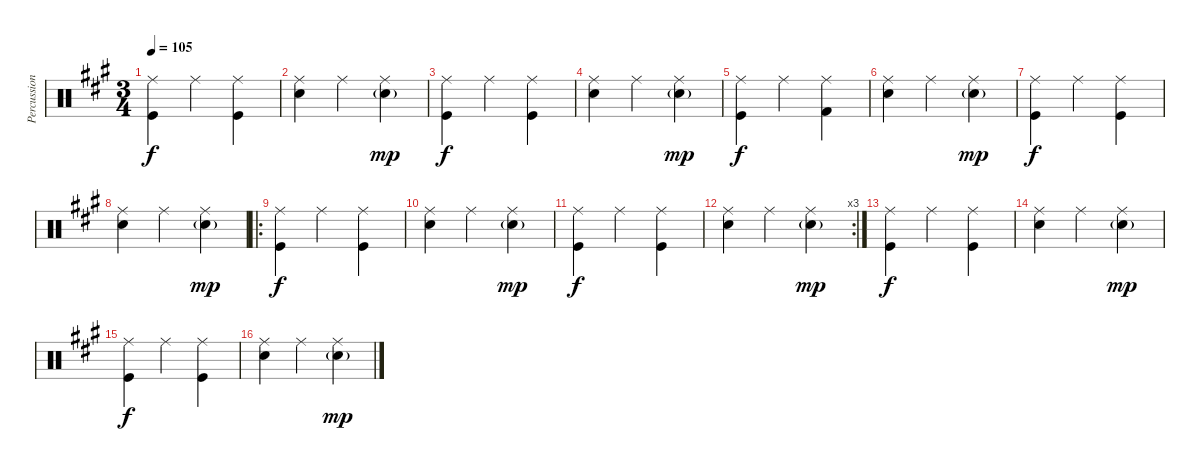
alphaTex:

\track ("Percussion" "Percussion") {instrument percussion}
\staff {score}
\articulation defaults
\ts (3 4)
\tempo 105
\clef neutral
\ks a
("Ride (middle)" "Kick (hit)").4{dy f} "Ride (middle)".4 ("Ride (middle)" "Kick (hit)").4 |
("Ride (middle)" "Snare (hit) 2").4 "Ride (middle)".4 ("Ride (middle)" "Snare (hit) 2"{g}).4{dy mp} |
("Ride (middle)" "Kick (hit)").4{dy f} "Ride (middle)".4 ("Ride (middle)" "Kick (hit)").4 |
("Ride (middle)" "Snare (hit) 2").4 "Ride (middle)".4 ("Ride (middle)" "Snare (hit) 2"{g}).4{dy mp} |
("Ride (middle)" "Kick (hit)").4{dy f} "Ride (middle)".4 ("Ride (middle)" "Kick (hit) 2").4 |
("Ride (middle)" "Snare (hit) 2").4 "Ride (middle)".4 ("Ride (middle)" "Snare (hit) 2"{g}).4{dy mp} |
("Ride (middle)" "Kick (hit)").4{dy f} "Ride (middle)".4 ("Ride (middle)" "Kick (hit)").4 |
("Ride (middle)" "Snare (hit) 2").4 "Ride (middle)".4 ("Ride (middle)" "Snare (hit) 2"{g}).4{dy mp} |
\ro
("Ride (middle)" "Kick (hit)").4{dy f} "Ride (middle)".4 ("Ride (middle)" "Kick (hit)").4 |
("Ride (middle)" "Snare (hit) 2").4 "Ride (middle)".4 ("Ride (middle)" "Snare (hit) 2"{g}).4{dy mp} |
("Ride (middle)" "Kick (hit)").4{dy f} "Ride (middle)".4 ("Ride (middle)" "Kick (hit)").4 |
\rc 3
("Ride (middle)" "Snare (hit) 2").4 "Ride (middle)".4 ("Ride (middle)" "Snare (hit) 2"{g}).4{dy mp} |
("Ride (middle)" "Kick (hit)").4{dy f} "Ride (middle)".4 ("Ride (middle)" "Kick (hit)").4 |
("Ride (middle)" "Snare (hit) 2").4 "Ride (middle)".4 ("Ride (middle)" "Snare (hit) 2"{g}).4{dy mp} |
("Ride (middle)" "Kick (hit)").4{dy f} "Ride (middle)".4 ("Ride (middle)" "Kick (hit)").4 |
("Ride (middle)" "Snare (hit) 2").4 "Ride (middle)".4 ("Ride (middle)" "Snare (hit) 2"{g}).4{dy mp}
